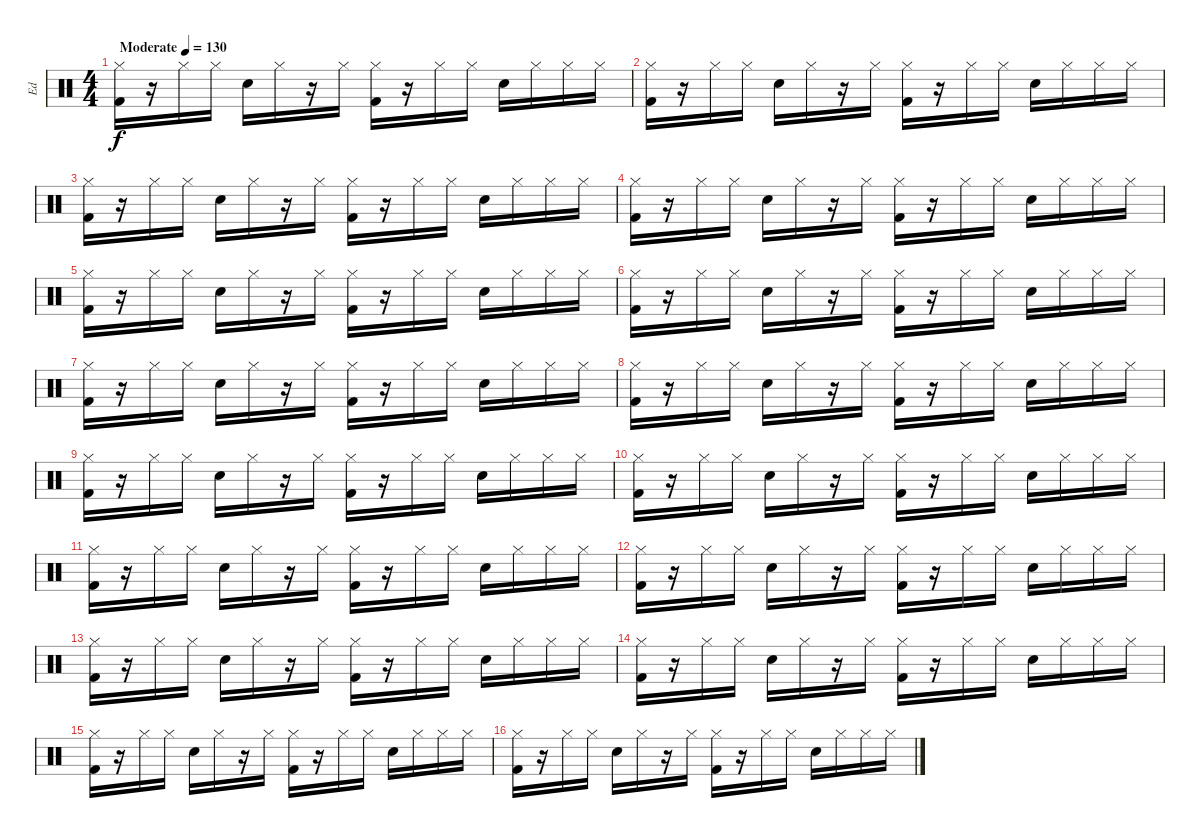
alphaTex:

\track ("Ed" "Ed") {instrument percussion}
\staff {score}
\articulation defaults
\ts (4 4)
\tempo (130 "Moderate")
\clef neutral
\ks c
("Hi-Hat (closed)" "Kick (hit) 2").16{dy f} r.16 "Hi-Hat (closed)".16 "Hi-Hat (closed)".16 "Snare (hit) 2".16 "Hi-Hat (closed)".16 r.16 "Hi-Hat (closed)".16 ("Hi-Hat (closed)" "Kick (hit) 2").16 r.16 "Hi-Hat (closed)".16 "Hi-Hat (closed)".16 "Snare (hit) 2".16 "Hi-Hat (closed)".16 "Hi-Hat (closed)".16 "Hi-Hat (closed)".16 |
("Hi-Hat (closed)" "Kick (hit) 2").16 r.16 "Hi-Hat (closed)".16 "Hi-Hat (closed)".16 "Snare (hit) 2".16 "Hi-Hat (closed)".16 r.16 "Hi-Hat (closed)".16 ("Hi-Hat (closed)" "Kick (hit) 2").16 r.16 "Hi-Hat (closed)".16 "Hi-Hat (closed)".16 "Snare (hit) 2".16 "Hi-Hat (closed)".16 "Hi-Hat (closed)".16 "Hi-Hat (closed)".16 |
("Hi-Hat (closed)" "Kick (hit) 2").16 r.16 "Hi-Hat (closed)".16 "Hi-Hat (closed)".16 "Snare (hit) 2".16 "Hi-Hat (closed)".16 r.16 "Hi-Hat (closed)".16 ("Hi-Hat (closed)" "Kick (hit) 2").16 r.16 "Hi-Hat (closed)".16 "Hi-Hat (closed)".16 "Snare (hit) 2".16 "Hi-Hat (closed)".16 "Hi-Hat (closed)".16 "Hi-Hat (closed)".16 |
("Hi-Hat (closed)" "Kick (hit) 2").16 r.16 "Hi-Hat (closed)".16 "Hi-Hat (closed)".16 "Snare (hit) 2".16 "Hi-Hat (closed)".16 r.16 "Hi-Hat (closed)".16 ("Hi-Hat (closed)" "Kick (hit) 2").16 r.16 "Hi-Hat (closed)".16 "Hi-Hat (closed)".16 "Snare (hit) 2".16 "Hi-Hat (closed)".16 "Hi-Hat (closed)".16 "Hi-Hat (closed)".16 |
("Hi-Hat (closed)" "Kick (hit) 2").16 r.16 "Hi-Hat (closed)".16 "Hi-Hat (closed)".16 "Snare (hit) 2".16 "Hi-Hat (closed)".16 r.16 "Hi-Hat (closed)".16 ("Hi-Hat (closed)" "Kick (hit) 2").16 r.16 "Hi-Hat (closed)".16 "Hi-Hat (closed)".16 "Snare (hit) 2".16 "Hi-Hat (closed)".16 "Hi-Hat (closed)".16 "Hi-Hat (closed)".16 |
("Hi-Hat (closed)" "Kick (hit) 2").16 r.16 "Hi-Hat (closed)".16 "Hi-Hat (closed)".16 "Snare (hit) 2".16 "Hi-Hat (closed)".16 r.16 "Hi-Hat (closed)".16 ("Hi-Hat (closed)" "Kick (hit) 2").16 r.16 "Hi-Hat (closed)".16 "Hi-Hat (closed)".16 "Snare (hit) 2".16 "Hi-Hat (closed)".16 "Hi-Hat (closed)".16 "Hi-Hat (closed)".16 |
("Hi-Hat (closed)" "Kick (hit) 2").16 r.16 "Hi-Hat (closed)".16 "Hi-Hat (closed)".16 "Snare (hit) 2".16 "Hi-Hat (closed)".16 r.16 "Hi-Hat (closed)".16 ("Hi-Hat (closed)" "Kick (hit) 2").16 r.16 "Hi-Hat (closed)".16 "Hi-Hat (closed)".16 "Snare (hit) 2".16 "Hi-Hat (closed)".16 "Hi-Hat (closed)".16 "Hi-Hat (closed)".16 |
("Hi-Hat (closed)" "Kick (hit) 2").16 r.16 "Hi-Hat (closed)".16 "Hi-Hat (closed)".16 "Snare (hit) 2".16 "Hi-Hat (closed)".16 r.16 "Hi-Hat (closed)".16 ("Hi-Hat (closed)" "Kick (hit) 2").16 r.16 "Hi-Hat (closed)".16 "Hi-Hat (closed)".16 "Snare (hit) 2".16 "Hi-Hat (closed)".16 "Hi-Hat (closed)".16 "Hi-Hat (closed)".16 |
("Hi-Hat (closed)" "Kick (hit) 2").16 r.16 "Hi-Hat (closed)".16 "Hi-Hat (closed)".16 "Snare (hit) 2".16 "Hi-Hat (closed)".16 r.16 "Hi-Hat (closed)".16 ("Hi-Hat (closed)" "Kick (hit) 2").16 r.16 "Hi-Hat (closed)".16 "Hi-Hat (closed)".16 "Snare (hit) 2".16 "Hi-Hat (closed)".16 "Hi-Hat (closed)".16 "Hi-Hat (closed)".16 |
("Hi-Hat (closed)" "Kick (hit) 2").16 r.16 "Hi-Hat (closed)".16 "Hi-Hat (closed)".16 "Snare (hit) 2".16 "Hi-Hat (closed)".16 r.16 "Hi-Hat (closed)".16 ("Hi-Hat (closed)" "Kick (hit) 2").16 r.16 "Hi-Hat (closed)".16 "Hi-Hat (closed)".16 "Snare (hit) 2".16 "Hi-Hat (closed)".16 "Hi-Hat (closed)".16 "Hi-Hat (closed)".16 |
("Hi-Hat (closed)" "Kick (hit) 2").16 r.16 "Hi-Hat (closed)".16 "Hi-Hat (closed)".16 "Snare (hit) 2".16 "Hi-Hat (closed)".16 r.16 "Hi-Hat (closed)".16 ("Hi-Hat (closed)" "Kick (hit) 2").16 r.16 "Hi-Hat (closed)".16 "Hi-Hat (closed)".16 "Snare (hit) 2".16 "Hi-Hat (closed)".16 "Hi-Hat (closed)".16 "Hi-Hat (closed)".16 |
("Hi-Hat (closed)" "Kick (hit) 2").16 r.16 "Hi-Hat (closed)".16 "Hi-Hat (closed)".16 "Snare (hit) 2".16 "Hi-Hat (closed)".16 r.16 "Hi-Hat (closed)".16 ("Hi-Hat (closed)" "Kick (hit) 2").16 r.16 "Hi-Hat (closed)".16 "Hi-Hat (closed)".16 "Snare (hit) 2".16 "Hi-Hat (closed)".16 "Hi-Hat (closed)".16 "Hi-Hat (closed)".16 |
("Hi-Hat (closed)" "Kick (hit) 2").16 r.16 "Hi-Hat (closed)".16 "Hi-Hat (closed)".16 "Snare (hit) 2".16 "Hi-Hat (closed)".16 r.16 "Hi-Hat (closed)".16 ("Hi-Hat (closed)" "Kick (hit) 2").16 r.16 "Hi-Hat (closed)".16 "Hi-Hat (closed)".16 "Snare (hit) 2".16 "Hi-Hat (closed)".16 "Hi-Hat (closed)".16 "Hi-Hat (closed)".16 |
("Hi-Hat (closed)" "Kick (hit) 2").16 r.16 "Hi-Hat (closed)".16 "Hi-Hat (closed)".16 "Snare (hit) 2".16 "Hi-Hat (closed)".16 r.16 "Hi-Hat (closed)".16 ("Hi-Hat (closed)" "Kick (hit) 2").16 r.16 "Hi-Hat (closed)".16 "Hi-Hat (closed)".16 "Snare (hit) 2".16 "Hi-Hat (closed)".16 "Hi-Hat (closed)".16 "Hi-Hat (closed)".16 |
("Hi-Hat (closed)" "Kick (hit) 2").16 r.16 "Hi-Hat (closed)".16 "Hi-Hat (closed)".16 "Snare (hit) 2".16 "Hi-Hat (closed)".16 r.16 "Hi-Hat (closed)".16 ("Hi-Hat (closed)" "Kick (hit) 2").16 r.16 "Hi-Hat (closed)".16 "Hi-Hat (closed)".16 "Snare (hit) 2".16 "Hi-Hat (closed)".16 "Hi-Hat (closed)".16 "Hi-Hat (closed)".16 |
("Hi-Hat (closed)" "Kick (hit) 2").16 r.16 "Hi-Hat (closed)".16 "Hi-Hat (closed)".16 "Snare (hit) 2".16 "Hi-Hat (closed)".16 r.16 "Hi-Hat (closed)".16 ("Hi-Hat (closed)" "Kick (hit) 2").16 r.16 "Hi-Hat (closed)".16 "Hi-Hat (closed)".16 "Snare (hit) 2".16 "Hi-Hat (closed)".16 "Hi-Hat (closed)".16 "Hi-Hat (closed)".16
